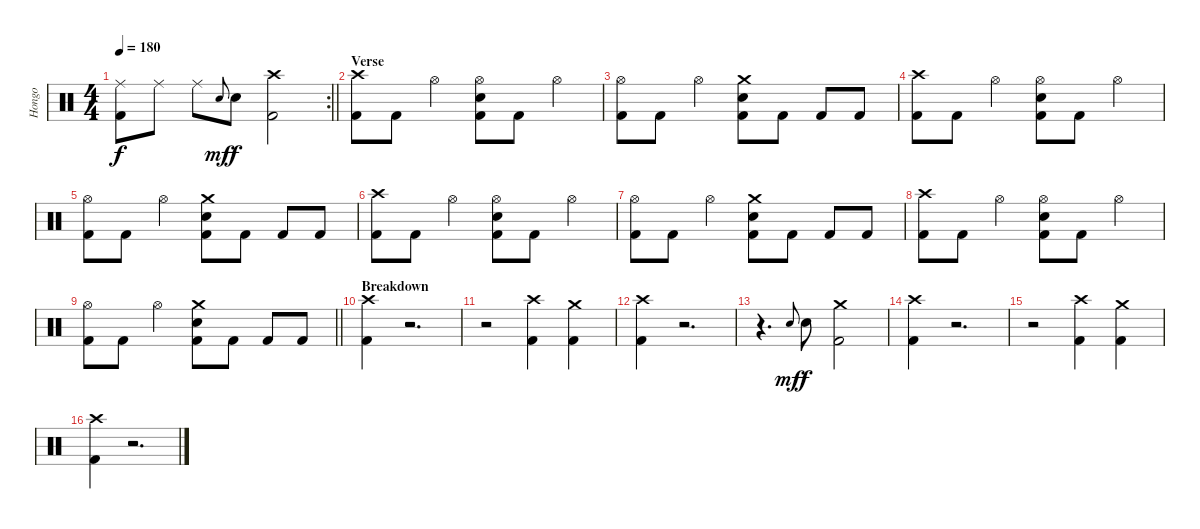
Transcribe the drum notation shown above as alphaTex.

\track ("Hongo" "Hongo") {instrument percussion}
\staff {score}
\articulation defaults
\rc 2
\ts (4 4)
\tempo 180
\clef neutral
\barLineRight lightlight
\ks c
("Ride (middle)" "Kick (hit) 2").8{dy f} "Ride (middle)".8 "Ride (middle)".8 "Electric Snare (hit)"{h}.8{gr onbeat dy mf} "Electric Snare (hit)".8{dy f} ("Crash high (hit)" "Kick (hit) 2").2 |
\section ("" "Verse")
("Crash high (hit)" "Kick (hit) 2").8 "Kick (hit) 2".8 "Hi-Hat (open)".4 ("Hi-Hat (open)" "Electric Snare (hit)" "Kick (hit) 2").8 "Kick (hit) 2".8 "Hi-Hat (open)".4 |
("Hi-Hat (open)" "Kick (hit) 2").8 "Kick (hit) 2".8 "Hi-Hat (open)".4 ("Crash medium (hit)" "Electric Snare (hit)" "Kick (hit) 2").8 "Kick (hit) 2".8 "Kick (hit) 2".8 "Kick (hit) 2".8 |
("Crash high (hit)" "Kick (hit) 2").8 "Kick (hit) 2".8 "Hi-Hat (open)".4 ("Hi-Hat (open)" "Electric Snare (hit)" "Kick (hit) 2").8 "Kick (hit) 2".8 "Hi-Hat (open)".4 |
("Hi-Hat (open)" "Kick (hit) 2").8 "Kick (hit) 2".8 "Hi-Hat (open)".4 ("Crash medium (hit)" "Electric Snare (hit)" "Kick (hit) 2").8 "Kick (hit) 2".8 "Kick (hit) 2".8 "Kick (hit) 2".8 |
("Crash high (hit)" "Kick (hit) 2").8 "Kick (hit) 2".8 "Hi-Hat (open)".4 ("Hi-Hat (open)" "Electric Snare (hit)" "Kick (hit) 2").8 "Kick (hit) 2".8 "Hi-Hat (open)".4 |
("Hi-Hat (open)" "Kick (hit) 2").8 "Kick (hit) 2".8 "Hi-Hat (open)".4 ("Crash medium (hit)" "Electric Snare (hit)" "Kick (hit) 2").8 "Kick (hit) 2".8 "Kick (hit) 2".8 "Kick (hit) 2".8 |
("Crash high (hit)" "Kick (hit) 2").8 "Kick (hit) 2".8 "Hi-Hat (open)".4 ("Hi-Hat (open)" "Electric Snare (hit)" "Kick (hit) 2").8 "Kick (hit) 2".8 "Hi-Hat (open)".4 |
\barLineRight lightlight
("Hi-Hat (open)" "Kick (hit) 2").8 "Kick (hit) 2".8 "Hi-Hat (open)".4 ("Crash medium (hit)" "Electric Snare (hit)" "Kick (hit) 2").8 "Kick (hit) 2".8 "Kick (hit) 2".8 "Kick (hit) 2".8 |
\section ("" "Breakdown")
("Crash high (hit)" "Kick (hit) 2").4 r.2{d} |
r.2 ("Crash high (hit)" "Kick (hit) 2").4 ("Crash medium (hit)" "Kick (hit) 2").4 |
("Crash high (hit)" "Kick (hit) 2").4 r.2{d} |
r.4{d} "Electric Snare (hit)"{h}.8{gr onbeat dy mf} "Electric Snare (hit)".8{dy f} ("Crash medium (hit)" "Kick (hit) 2").2 |
("Crash high (hit)" "Kick (hit) 2").4 r.2{d} |
r.2 ("Crash high (hit)" "Kick (hit) 2").4 ("Crash medium (hit)" "Kick (hit) 2").4 |
("Crash high (hit)" "Kick (hit) 2").4 r.2{d}
